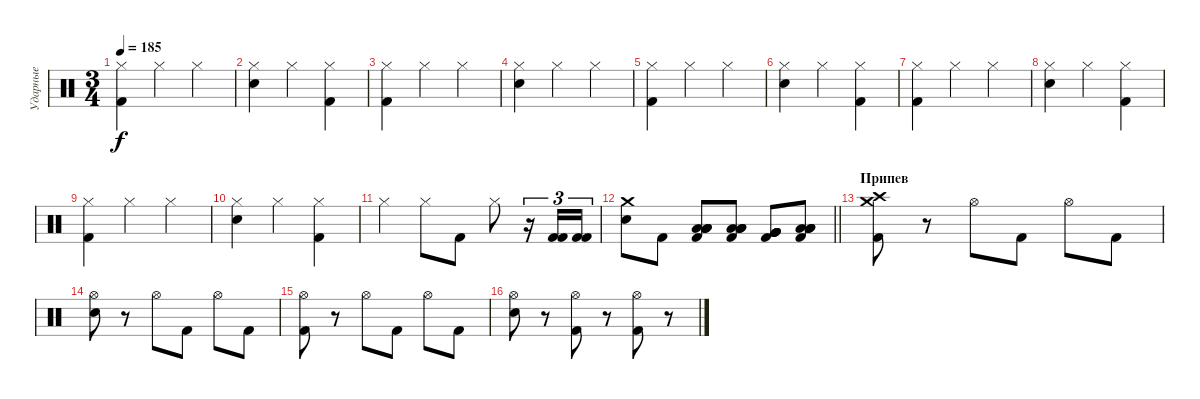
\track ("Ударные" "Ударные") {instrument percussion}
\staff {score}
\articulation defaults
\ts (3 4)
\tempo 185
\clef neutral
\ks c
("Hi-Hat (closed)" "Kick (hit) 2").4{dy f} "Hi-Hat (closed)".4 "Hi-Hat (closed)".4 |
("Hi-Hat (closed)" "Snare (hit) 2").4 "Hi-Hat (closed)".4 ("Hi-Hat (closed)" "Kick (hit) 2").4 |
("Hi-Hat (closed)" "Kick (hit) 2").4 "Hi-Hat (closed)".4 "Hi-Hat (closed)".4 |
("Hi-Hat (closed)" "Snare (hit) 2").4 "Hi-Hat (closed)".4 "Hi-Hat (closed)".4 |
("Hi-Hat (closed)" "Kick (hit) 2").4 "Hi-Hat (closed)".4 "Hi-Hat (closed)".4 |
("Hi-Hat (closed)" "Snare (hit) 2").4 "Hi-Hat (closed)".4 ("Hi-Hat (closed)" "Kick (hit) 2").4 |
("Hi-Hat (closed)" "Kick (hit) 2").4 "Hi-Hat (closed)".4 "Hi-Hat (closed)".4 |
("Hi-Hat (closed)" "Snare (hit) 2").4 "Hi-Hat (closed)".4 ("Hi-Hat (closed)" "Kick (hit) 2").4 |
("Hi-Hat (closed)" "Kick (hit) 2").4 "Hi-Hat (closed)".4 "Hi-Hat (closed)".4 |
("Hi-Hat (closed)" "Snare (hit) 2").4 "Hi-Hat (closed)".4 ("Hi-Hat (closed)" "Kick (hit) 2").4 |
"Hi-Hat (closed)".4 "Hi-Hat (closed)".8 "Kick (hit) 2".8 "Hi-Hat (closed)".8 r.16{tu (3 2)} ("Kick (hit) 2" "Kick (hit) 2").16{tu (3 2)} ("Kick (hit) 2" "Kick (hit) 2").16{tu (3 2)} |
\barLineRight lightlight
("Snare (hit) 2" "Crash medium (hit)").8 "Kick (hit) 2".8 ("Low Tom (hit)" "Low Tom (hit)" "Kick (hit) 2" "Low Tom (hit)" "Low Tom (hit)").8 ("Low Tom (hit)" "Low Tom (hit)" "Kick (hit) 2" "Low Tom (hit)" "Low Tom (hit)").8 ("Very Low Tom (hit)" "Very Low Tom (hit)" "Kick (hit) 2" "Very Low Tom (hit)" "Very Low Tom (hit)").8 ("Low Floor Tom (hit)" "Low Floor Tom (hit)" "Kick (hit) 2" "Low Floor Tom (hit)" "Low Floor Tom (hit)").8 |
\section ("" "Припев")
("Crash high (hit)" "Crash medium (hit)" "Kick (hit) 2").8 r.8 "Hi-Hat (open)".8 "Kick (hit) 2".8 "Hi-Hat (open)".8 "Kick (hit) 2".8 |
("Hi-Hat (open)" "Snare (hit) 2").8 r.8 "Hi-Hat (open)".8 "Kick (hit) 2".8 "Hi-Hat (open)".8 "Kick (hit) 2".8 |
("Hi-Hat (open)" "Kick (hit) 2").8 r.8 "Hi-Hat (open)".8 "Kick (hit) 2".8 "Hi-Hat (open)".8 "Kick (hit) 2".8 |
("Hi-Hat (open)" "Snare (hit) 2").8 r.8 ("Hi-Hat (open)" "Kick (hit) 2").8 r.8 ("Hi-Hat (open)" "Kick (hit) 2").8 r.8
